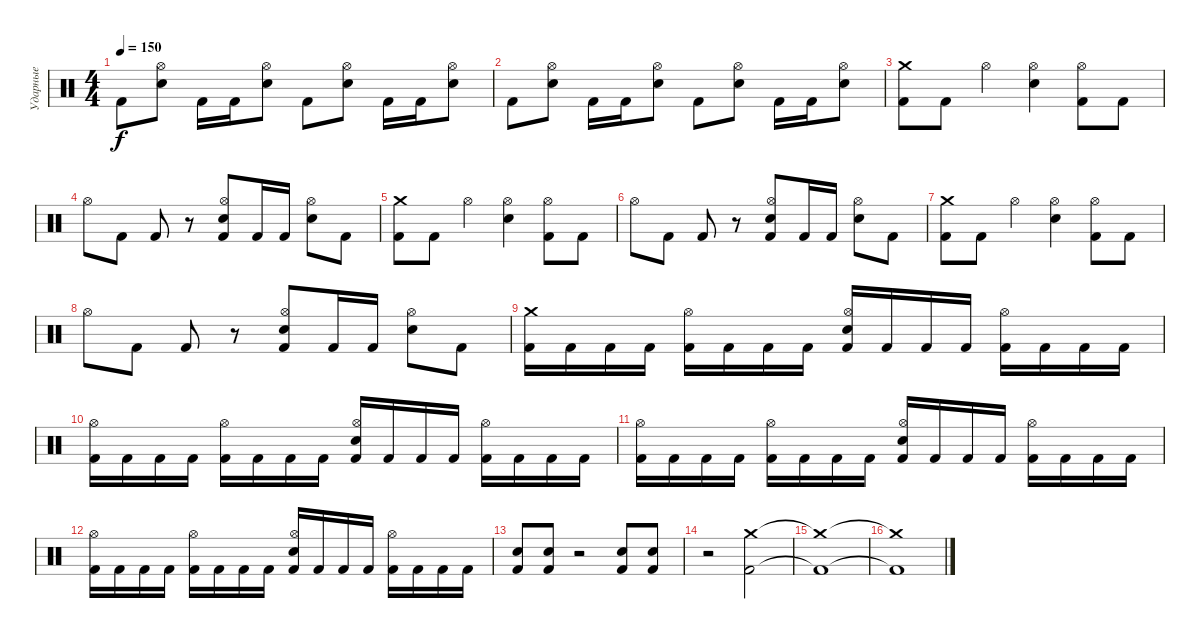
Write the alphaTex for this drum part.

\track ("Ударные" "Ударные") {instrument percussion}
\staff {score}
\articulation defaults
\ts (4 4)
\tempo 150
\clef neutral
\ks c "Kick (hit) 2".8{dy f}
("Hi-Hat (open)" "Electric Snare (hit)").8 "Kick (hit) 2".16 "Kick (hit) 2".16 ("Hi-Hat (open)" "Electric Snare (hit)").8 "Kick (hit) 2".8 ("Hi-Hat (open)" "Electric Snare (hit)").8 "Kick (hit) 2".16 "Kick (hit) 2".16 ("Hi-Hat (open)" "Electric Snare (hit)").8 |
"Kick (hit) 2".8 ("Hi-Hat (open)" "Electric Snare (hit)").8 "Kick (hit) 2".16 "Kick (hit) 2".16 ("Hi-Hat (open)" "Electric Snare (hit)").8 "Kick (hit) 2".8 ("Hi-Hat (open)" "Electric Snare (hit)").8 "Kick (hit) 2".16 "Kick (hit) 2".16 ("Hi-Hat (open)" "Electric Snare (hit)").8 |
("Crash medium (hit)" "Kick (hit) 2").8 "Kick (hit) 2".8 "Hi-Hat (open)".4 ("Hi-Hat (open)" "Electric Snare (hit)").4 ("Hi-Hat (open)" "Kick (hit) 2").8 "Kick (hit) 2".8 |
"Hi-Hat (open)".8 "Kick (hit) 2".8 "Kick (hit) 2".8 r.8 ("Hi-Hat (open)" "Electric Snare (hit)" "Kick (hit) 2").8 "Kick (hit) 2".16 "Kick (hit) 2".16 ("Hi-Hat (open)" "Electric Snare (hit)").8 "Kick (hit) 2".8 |
("Crash medium (hit)" "Kick (hit) 2").8 "Kick (hit) 2".8 "Hi-Hat (open)".4 ("Hi-Hat (open)" "Electric Snare (hit)").4 ("Hi-Hat (open)" "Kick (hit) 2").8 "Kick (hit) 2".8 |
"Hi-Hat (open)".8 "Kick (hit) 2".8 "Kick (hit) 2".8 r.8 ("Hi-Hat (open)" "Electric Snare (hit)" "Kick (hit) 2").8 "Kick (hit) 2".16 "Kick (hit) 2".16 ("Hi-Hat (open)" "Electric Snare (hit)").8 "Kick (hit) 2".8 |
("Crash medium (hit)" "Kick (hit) 2").8 "Kick (hit) 2".8 "Hi-Hat (open)".4 ("Hi-Hat (open)" "Electric Snare (hit)").4 ("Hi-Hat (open)" "Kick (hit) 2").8 "Kick (hit) 2".8 |
"Hi-Hat (open)".8 "Kick (hit) 2".8 "Kick (hit) 2".8 r.8 ("Hi-Hat (open)" "Electric Snare (hit)" "Kick (hit) 2").8 "Kick (hit) 2".16 "Kick (hit) 2".16 ("Hi-Hat (open)" "Electric Snare (hit)").8 "Kick (hit) 2".8 |
("Crash medium (hit)" "Kick (hit) 2").16 "Kick (hit) 2".16 "Kick (hit) 2".16 "Kick (hit) 2".16 ("Hi-Hat (open)" "Kick (hit) 2").16 "Kick (hit) 2".16 "Kick (hit) 2".16 "Kick (hit) 2".16 ("Hi-Hat (open)" "Electric Snare (hit)" "Kick (hit) 2").16 "Kick (hit) 2".16 "Kick (hit) 2".16 "Kick (hit) 2".16 ("Hi-Hat (open)" "Kick (hit) 2").16 "Kick (hit) 2".16 "Kick (hit) 2".16 "Kick (hit) 2".16 |
("Hi-Hat (open)" "Kick (hit) 2").16 "Kick (hit) 2".16 "Kick (hit) 2".16 "Kick (hit) 2".16 ("Hi-Hat (open)" "Kick (hit) 2").16 "Kick (hit) 2".16 "Kick (hit) 2".16 "Kick (hit) 2".16 ("Hi-Hat (open)" "Electric Snare (hit)" "Kick (hit) 2").16 "Kick (hit) 2".16 "Kick (hit) 2".16 "Kick (hit) 2".16 ("Hi-Hat (open)" "Kick (hit) 2").16 "Kick (hit) 2".16 "Kick (hit) 2".16 "Kick (hit) 2".16 |
("Hi-Hat (open)" "Kick (hit) 2").16 "Kick (hit) 2".16 "Kick (hit) 2".16 "Kick (hit) 2".16 ("Hi-Hat (open)" "Kick (hit) 2").16 "Kick (hit) 2".16 "Kick (hit) 2".16 "Kick (hit) 2".16 ("Hi-Hat (open)" "Electric Snare (hit)" "Kick (hit) 2").16 "Kick (hit) 2".16 "Kick (hit) 2".16 "Kick (hit) 2".16 ("Hi-Hat (open)" "Kick (hit) 2").16 "Kick (hit) 2".16 "Kick (hit) 2".16 "Kick (hit) 2".16 |
("Hi-Hat (open)" "Kick (hit) 2").16 "Kick (hit) 2".16 "Kick (hit) 2".16 "Kick (hit) 2".16 ("Hi-Hat (open)" "Kick (hit) 2").16 "Kick (hit) 2".16 "Kick (hit) 2".16 "Kick (hit) 2".16 ("Hi-Hat (open)" "Electric Snare (hit)" "Kick (hit) 2").16 "Kick (hit) 2".16 "Kick (hit) 2".16 "Kick (hit) 2".16 ("Hi-Hat (open)" "Kick (hit) 2").16 "Kick (hit) 2".16 "Kick (hit) 2".16 "Kick (hit) 2".16 |
("Electric Snare (hit)" "Kick (hit) 2").8 ("Electric Snare (hit)" "Kick (hit) 2").8 r.2 ("Electric Snare (hit)" "Kick (hit) 2").8 ("Electric Snare (hit)" "Kick (hit) 2").8 |
r.2 ("Crash medium (hit)" "Kick (hit) 2").2 |
("Crash medium (hit)"{t} "Kick (hit) 2"{t}).1 |
("Crash medium (hit)"{t} "Kick (hit) 2"{t}).1
